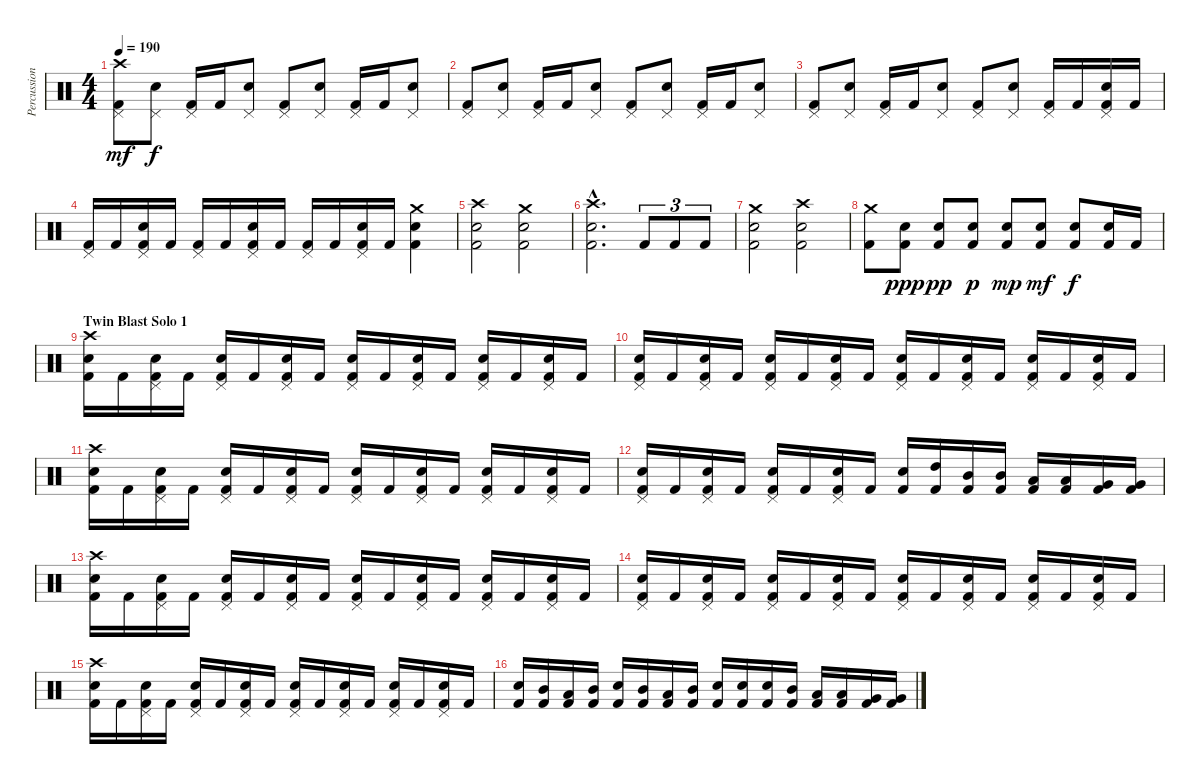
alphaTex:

\track ("Percussion" "Percussion") {instrument percussion}
\staff {score}
\articulation defaults
\ts (4 4)
\tempo 190
\clef neutral
\ks c
("Crash high (hit)" "Pedal Hi-Hat (hit)" "Kick (hit) 2").8{dy mf} ("Pedal Hi-Hat (hit)" "Snare (hit) 2").8{dy f} ("Pedal Hi-Hat (hit)" "Kick (hit) 2").16 "Kick (hit) 2".16 ("Pedal Hi-Hat (hit)" "Snare (hit) 2").8 ("Pedal Hi-Hat (hit)" "Kick (hit) 2").8 ("Pedal Hi-Hat (hit)" "Snare (hit) 2").8 ("Pedal Hi-Hat (hit)" "Kick (hit) 2").16 "Kick (hit) 2".16 ("Pedal Hi-Hat (hit)" "Snare (hit) 2").8 |
("Pedal Hi-Hat (hit)" "Kick (hit) 2").8 ("Pedal Hi-Hat (hit)" "Snare (hit) 2").8 ("Pedal Hi-Hat (hit)" "Kick (hit) 2").16 "Kick (hit) 2".16 ("Pedal Hi-Hat (hit)" "Snare (hit) 2").8 ("Pedal Hi-Hat (hit)" "Kick (hit) 2").8 ("Pedal Hi-Hat (hit)" "Snare (hit) 2").8 ("Pedal Hi-Hat (hit)" "Kick (hit) 2").16 "Kick (hit) 2".16 ("Pedal Hi-Hat (hit)" "Snare (hit) 2").8 |
("Pedal Hi-Hat (hit)" "Kick (hit) 2").8 ("Pedal Hi-Hat (hit)" "Snare (hit) 2").8 ("Pedal Hi-Hat (hit)" "Kick (hit) 2").16 "Kick (hit) 2".16 ("Pedal Hi-Hat (hit)" "Snare (hit) 2").8 ("Pedal Hi-Hat (hit)" "Kick (hit) 2").8 ("Pedal Hi-Hat (hit)" "Snare (hit) 2").8 ("Pedal Hi-Hat (hit)" "Kick (hit) 2").16 "Kick (hit) 2".16 ("Pedal Hi-Hat (hit)" "Snare (hit) 2" "Kick (hit) 2").16 "Kick (hit) 2".16 |
("Pedal Hi-Hat (hit)" "Kick (hit) 2").16 "Kick (hit) 2".16 ("Pedal Hi-Hat (hit)" "Snare (hit) 2" "Kick (hit) 2").16 "Kick (hit) 2".16 ("Pedal Hi-Hat (hit)" "Kick (hit) 2").16 "Kick (hit) 2".16 ("Pedal Hi-Hat (hit)" "Snare (hit) 2" "Kick (hit) 2").16 "Kick (hit) 2".16 ("Pedal Hi-Hat (hit)" "Kick (hit) 2").16 "Kick (hit) 2".16 ("Pedal Hi-Hat (hit)" "Snare (hit) 2" "Kick (hit) 2").16 "Kick (hit) 2".16 ("Crash medium (hit)" "Snare (hit) 2" "Kick (hit) 2").4 |
("Crash high (hit)" "Snare (hit) 2" "Kick (hit) 2").2 ("Crash medium (hit)" "Snare (hit) 2" "Kick (hit) 2").2 |
("Crash high (hit)"{hac} "Snare (hit) 2"{hac} "Kick (hit) 2"{hac}).2{d} "Kick (hit) 2".8{tu (3 2)} "Kick (hit) 2".8{tu (3 2)} "Kick (hit) 2".8{tu (3 2)} |
("Crash medium (hit)" "Snare (hit) 2" "Kick (hit) 2").2 ("Crash high (hit)" "Snare (hit) 2" "Kick (hit) 2").2 |
("Crash medium (hit)" "Kick (hit) 2").8 ("Snare (hit) 2" "Kick (hit) 2").8{dy ppp} ("Snare (hit) 2" "Kick (hit) 2").8{dy pp} ("Snare (hit) 2" "Kick (hit) 2").8{dy p} ("Snare (hit) 2" "Kick (hit) 2").8{dy mp} ("Snare (hit) 2" "Kick (hit) 2").8{dy mf} ("Snare (hit) 2" "Kick (hit) 2").8{dy f} ("Snare (hit) 2" "Kick (hit) 2").16 "Kick (hit) 2".16 |
\section ("" "Twin Blast Solo 1")
("Crash high (hit)" "Snare (hit) 2" "Kick (hit) 2").16 "Kick (hit) 2".16 ("Pedal Hi-Hat (hit)" "Snare (hit) 2" "Kick (hit) 2").16 "Kick (hit) 2".16 ("Pedal Hi-Hat (hit)" "Snare (hit) 2" "Kick (hit) 2").16 "Kick (hit) 2".16 ("Pedal Hi-Hat (hit)" "Snare (hit) 2" "Kick (hit) 2").16 "Kick (hit) 2".16 ("Pedal Hi-Hat (hit)" "Snare (hit) 2" "Kick (hit) 2").16 "Kick (hit) 2".16 ("Pedal Hi-Hat (hit)" "Snare (hit) 2" "Kick (hit) 2").16 "Kick (hit) 2".16 ("Pedal Hi-Hat (hit)" "Snare (hit) 2" "Kick (hit) 2").16 "Kick (hit) 2".16 ("Pedal Hi-Hat (hit)" "Snare (hit) 2" "Kick (hit) 2").16 "Kick (hit) 2".16 |
("Pedal Hi-Hat (hit)" "Snare (hit) 2" "Kick (hit) 2").16 "Kick (hit) 2".16 ("Pedal Hi-Hat (hit)" "Snare (hit) 2" "Kick (hit) 2").16 "Kick (hit) 2".16 ("Pedal Hi-Hat (hit)" "Snare (hit) 2" "Kick (hit) 2").16 "Kick (hit) 2".16 ("Pedal Hi-Hat (hit)" "Snare (hit) 2" "Kick (hit) 2").16 "Kick (hit) 2".16 ("Pedal Hi-Hat (hit)" "Snare (hit) 2" "Kick (hit) 2").16 "Kick (hit) 2".16 ("Pedal Hi-Hat (hit)" "Snare (hit) 2" "Kick (hit) 2").16 "Kick (hit) 2".16 ("Pedal Hi-Hat (hit)" "Snare (hit) 2" "Kick (hit) 2").16 "Kick (hit) 2".16 ("Pedal Hi-Hat (hit)" "Snare (hit) 2" "Kick (hit) 2").16 "Kick (hit) 2".16 |
("Crash high (hit)" "Snare (hit) 2" "Kick (hit) 2").16 "Kick (hit) 2".16 ("Pedal Hi-Hat (hit)" "Snare (hit) 2" "Kick (hit) 2").16 "Kick (hit) 2".16 ("Pedal Hi-Hat (hit)" "Snare (hit) 2" "Kick (hit) 2").16 "Kick (hit) 2".16 ("Pedal Hi-Hat (hit)" "Snare (hit) 2" "Kick (hit) 2").16 "Kick (hit) 2".16 ("Pedal Hi-Hat (hit)" "Snare (hit) 2" "Kick (hit) 2").16 "Kick (hit) 2".16 ("Pedal Hi-Hat (hit)" "Snare (hit) 2" "Kick (hit) 2").16 "Kick (hit) 2".16 ("Pedal Hi-Hat (hit)" "Snare (hit) 2" "Kick (hit) 2").16 "Kick (hit) 2".16 ("Pedal Hi-Hat (hit)" "Snare (hit) 2" "Kick (hit) 2").16 "Kick (hit) 2".16 |
("Pedal Hi-Hat (hit)" "Snare (hit) 2" "Kick (hit) 2").16 "Kick (hit) 2".16 ("Pedal Hi-Hat (hit)" "Snare (hit) 2" "Kick (hit) 2").16 "Kick (hit) 2".16 ("Pedal Hi-Hat (hit)" "Snare (hit) 2" "Kick (hit) 2").16 "Kick (hit) 2".16 ("Pedal Hi-Hat (hit)" "Snare (hit) 2" "Kick (hit) 2").16 "Kick (hit) 2".16 ("Snare (hit) 2" "Kick (hit) 2").16 ("High Tom (hit)" "Kick (hit) 2").16 ("Mid Tom (hit)" "Kick (hit) 2").16 ("Mid Tom (hit)" "Kick (hit) 2").16 ("Low Tom (hit)" "Kick (hit) 2").16 ("Low Tom (hit)" "Kick (hit) 2").16 ("Very Low Tom (hit)" "Kick (hit) 2").16 ("Very Low Tom (hit)" "Kick (hit) 2").16 |
("Crash high (hit)" "Snare (hit) 2" "Kick (hit) 2").16 "Kick (hit) 2".16 ("Pedal Hi-Hat (hit)" "Snare (hit) 2" "Kick (hit) 2").16 "Kick (hit) 2".16 ("Pedal Hi-Hat (hit)" "Snare (hit) 2" "Kick (hit) 2").16 "Kick (hit) 2".16 ("Pedal Hi-Hat (hit)" "Snare (hit) 2" "Kick (hit) 2").16 "Kick (hit) 2".16 ("Pedal Hi-Hat (hit)" "Snare (hit) 2" "Kick (hit) 2").16 "Kick (hit) 2".16 ("Pedal Hi-Hat (hit)" "Snare (hit) 2" "Kick (hit) 2").16 "Kick (hit) 2".16 ("Pedal Hi-Hat (hit)" "Snare (hit) 2" "Kick (hit) 2").16 "Kick (hit) 2".16 ("Pedal Hi-Hat (hit)" "Snare (hit) 2" "Kick (hit) 2").16 "Kick (hit) 2".16 |
("Pedal Hi-Hat (hit)" "Snare (hit) 2" "Kick (hit) 2").16 "Kick (hit) 2".16 ("Pedal Hi-Hat (hit)" "Snare (hit) 2" "Kick (hit) 2").16 "Kick (hit) 2".16 ("Pedal Hi-Hat (hit)" "Snare (hit) 2" "Kick (hit) 2").16 "Kick (hit) 2".16 ("Pedal Hi-Hat (hit)" "Snare (hit) 2" "Kick (hit) 2").16 "Kick (hit) 2".16 ("Pedal Hi-Hat (hit)" "Snare (hit) 2" "Kick (hit) 2").16 "Kick (hit) 2".16 ("Pedal Hi-Hat (hit)" "Snare (hit) 2" "Kick (hit) 2").16 "Kick (hit) 2".16 ("Pedal Hi-Hat (hit)" "Snare (hit) 2" "Kick (hit) 2").16 "Kick (hit) 2".16 ("Pedal Hi-Hat (hit)" "Snare (hit) 2" "Kick (hit) 2").16 "Kick (hit) 2".16 |
("Crash high (hit)" "Snare (hit) 2" "Kick (hit) 2").16 "Kick (hit) 2".16 ("Pedal Hi-Hat (hit)" "Snare (hit) 2" "Kick (hit) 2").16 "Kick (hit) 2".16 ("Pedal Hi-Hat (hit)" "Snare (hit) 2" "Kick (hit) 2").16 "Kick (hit) 2".16 ("Pedal Hi-Hat (hit)" "Snare (hit) 2" "Kick (hit) 2").16 "Kick (hit) 2".16 ("Pedal Hi-Hat (hit)" "Snare (hit) 2" "Kick (hit) 2").16 "Kick (hit) 2".16 ("Pedal Hi-Hat (hit)" "Snare (hit) 2" "Kick (hit) 2").16 "Kick (hit) 2".16 ("Pedal Hi-Hat (hit)" "Snare (hit) 2" "Kick (hit) 2").16 "Kick (hit) 2".16 ("Pedal Hi-Hat (hit)" "Snare (hit) 2" "Kick (hit) 2").16 "Kick (hit) 2".16 |
("Snare (hit) 2" "Kick (hit) 2").16 ("Mid Tom (hit)" "Kick (hit) 2").16 ("Low Tom (hit)" "Kick (hit) 2").16 ("Mid Tom (hit)" "Kick (hit) 2").16 ("Snare (hit) 2" "Kick (hit) 2").16 ("Mid Tom (hit)" "Kick (hit) 2").16 ("Low Tom (hit)" "Kick (hit) 2").16 ("Mid Tom (hit)" "Kick (hit) 2").16 ("Snare (hit) 2" "Kick (hit) 2").16 ("Snare (hit) 2" "Kick (hit) 2").16 ("Snare (hit) 2" "Kick (hit) 2").16 ("Mid Tom (hit)" "Kick (hit) 2").16 ("Low Tom (hit)" "Kick (hit) 2").16 ("Low Tom (hit)" "Kick (hit) 2").16 ("Very Low Tom (hit)" "Kick (hit) 2").16 ("Very Low Tom (hit)" "Kick (hit) 2").16
